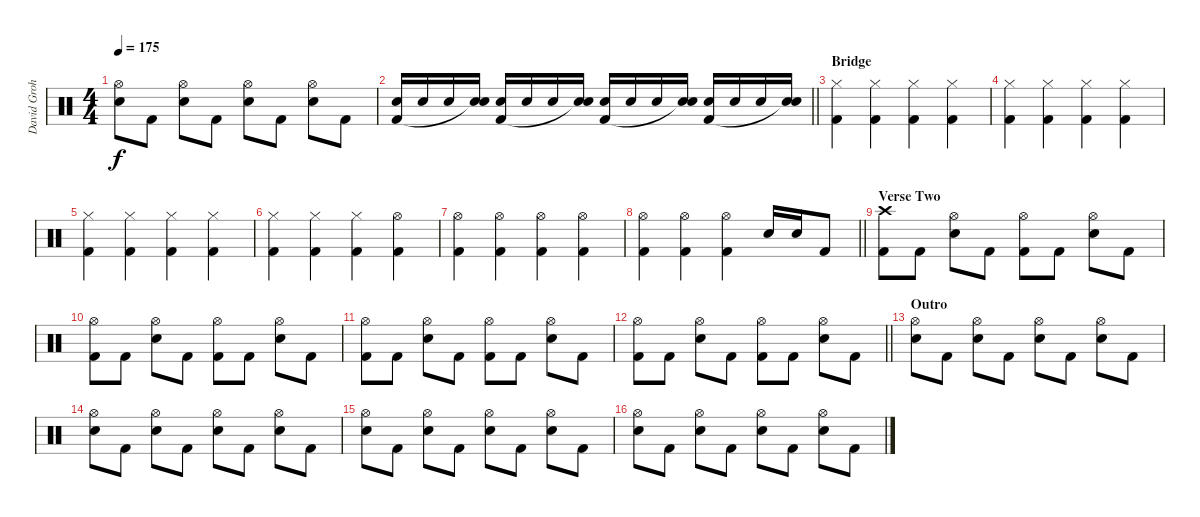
\track ("David Grohl/Alfredo Ortiz" "David Groh") {instrument percussion}
\staff {score}
\articulation defaults
\ts (4 4)
\tempo 175
\clef neutral
\ks c
("Hi-Hat (open)" "Snare (hit) 2").8{dy f} "Kick (hit) 2".8 ("Hi-Hat (open)" "Snare (hit) 2").8 "Kick (hit) 2".8 ("Hi-Hat (open)" "Snare (hit) 2").8 "Kick (hit) 2".8 ("Hi-Hat (open)" "Snare (hit) 2").8 "Kick (hit) 2".8 |
\barLineRight lightlight
("Snare (hit) 2" "Kick (hit) 2").16 "Snare (hit) 2".16 "Snare (hit) 2".16 ("Snare (hit) 2" "Snare (hit)"{t}).16 ("Snare (hit) 2" "Kick (hit) 2").16 "Snare (hit) 2".16 "Snare (hit) 2".16 ("Snare (hit) 2" "Snare (hit)"{t}).16 ("Snare (hit) 2" "Kick (hit) 2").16 "Snare (hit) 2".16 "Snare (hit) 2".16 ("Snare (hit) 2" "Snare (hit)"{t}).16 ("Snare (hit) 2" "Kick (hit) 2").16 "Snare (hit) 2".16 "Snare (hit) 2".16 ("Snare (hit) 2" "Snare (hit)"{t}).16 |
\section ("" "Bridge")
("Hi-Hat (closed)" "Kick (hit) 2").4 ("Hi-Hat (closed)" "Kick (hit) 2").4 ("Hi-Hat (closed)" "Kick (hit) 2").4 ("Hi-Hat (closed)" "Kick (hit) 2").4 |
("Hi-Hat (closed)" "Kick (hit) 2").4 ("Hi-Hat (closed)" "Kick (hit) 2").4 ("Hi-Hat (closed)" "Kick (hit) 2").4 ("Hi-Hat (closed)" "Kick (hit) 2").4 |
("Hi-Hat (closed)" "Kick (hit) 2").4 ("Hi-Hat (closed)" "Kick (hit) 2").4 ("Hi-Hat (closed)" "Kick (hit) 2").4 ("Hi-Hat (closed)" "Kick (hit) 2").4 |
("Hi-Hat (closed)" "Kick (hit) 2").4 ("Hi-Hat (closed)" "Kick (hit) 2").4 ("Hi-Hat (closed)" "Kick (hit) 2").4 ("Hi-Hat (open)" "Kick (hit) 2").4 |
("Hi-Hat (open)" "Kick (hit) 2").4 ("Hi-Hat (open)" "Kick (hit) 2").4 ("Hi-Hat (open)" "Kick (hit) 2").4 ("Hi-Hat (open)" "Kick (hit) 2").4 |
\barLineRight lightlight
("Hi-Hat (open)" "Kick (hit) 2").4 ("Hi-Hat (open)" "Kick (hit) 2").4 ("Hi-Hat (open)" "Kick (hit) 2").4 "Snare (hit) 2".16 "Snare (hit) 2".16 "Kick (hit) 2".8 |
\section ("" "Verse Two")
("Crash high (hit)" "Kick (hit) 2").8 "Kick (hit) 2".8 ("Hi-Hat (open)" "Snare (hit) 2").8 "Kick (hit) 2".8 ("Hi-Hat (open)" "Kick (hit) 2").8 "Kick (hit) 2".8 ("Hi-Hat (open)" "Snare (hit) 2").8 "Kick (hit) 2".8 |
("Hi-Hat (open)" "Kick (hit) 2").8 "Kick (hit) 2".8 ("Hi-Hat (open)" "Snare (hit) 2").8 "Kick (hit) 2".8 ("Hi-Hat (open)" "Kick (hit) 2").8 "Kick (hit) 2".8 ("Hi-Hat (open)" "Snare (hit) 2").8 "Kick (hit) 2".8 |
("Hi-Hat (open)" "Kick (hit) 2").8 "Kick (hit) 2".8 ("Hi-Hat (open)" "Snare (hit) 2").8 "Kick (hit) 2".8 ("Hi-Hat (open)" "Kick (hit) 2").8 "Kick (hit) 2".8 ("Hi-Hat (open)" "Snare (hit) 2").8 "Kick (hit) 2".8 |
\barLineRight lightlight
("Hi-Hat (open)" "Kick (hit) 2").8 "Kick (hit) 2".8 ("Hi-Hat (open)" "Snare (hit) 2").8 "Kick (hit) 2".8 ("Hi-Hat (open)" "Kick (hit) 2").8 "Kick (hit) 2".8 ("Hi-Hat (open)" "Snare (hit) 2").8 "Kick (hit) 2".8 |
\section ("" "Outro")
("Hi-Hat (open)" "Snare (hit) 2").8 "Kick (hit) 2".8 ("Hi-Hat (open)" "Snare (hit) 2").8 "Kick (hit) 2".8 ("Hi-Hat (open)" "Snare (hit) 2").8 "Kick (hit) 2".8 ("Hi-Hat (open)" "Snare (hit) 2").8 "Kick (hit) 2".8 |
("Hi-Hat (open)" "Snare (hit) 2").8 "Kick (hit) 2".8 ("Hi-Hat (open)" "Snare (hit) 2").8 "Kick (hit) 2".8 ("Hi-Hat (open)" "Snare (hit) 2").8 "Kick (hit) 2".8 ("Hi-Hat (open)" "Snare (hit) 2").8 "Kick (hit) 2".8 |
("Hi-Hat (open)" "Snare (hit) 2").8 "Kick (hit) 2".8 ("Hi-Hat (open)" "Snare (hit) 2").8 "Kick (hit) 2".8 ("Hi-Hat (open)" "Snare (hit) 2").8 "Kick (hit) 2".8 ("Hi-Hat (open)" "Snare (hit) 2").8 "Kick (hit) 2".8 |
("Hi-Hat (open)" "Snare (hit) 2").8 "Kick (hit) 2".8 ("Hi-Hat (open)" "Snare (hit) 2").8 "Kick (hit) 2".8 ("Hi-Hat (open)" "Snare (hit) 2").8 "Kick (hit) 2".8 ("Hi-Hat (open)" "Snare (hit) 2").8 "Kick (hit) 2".8
